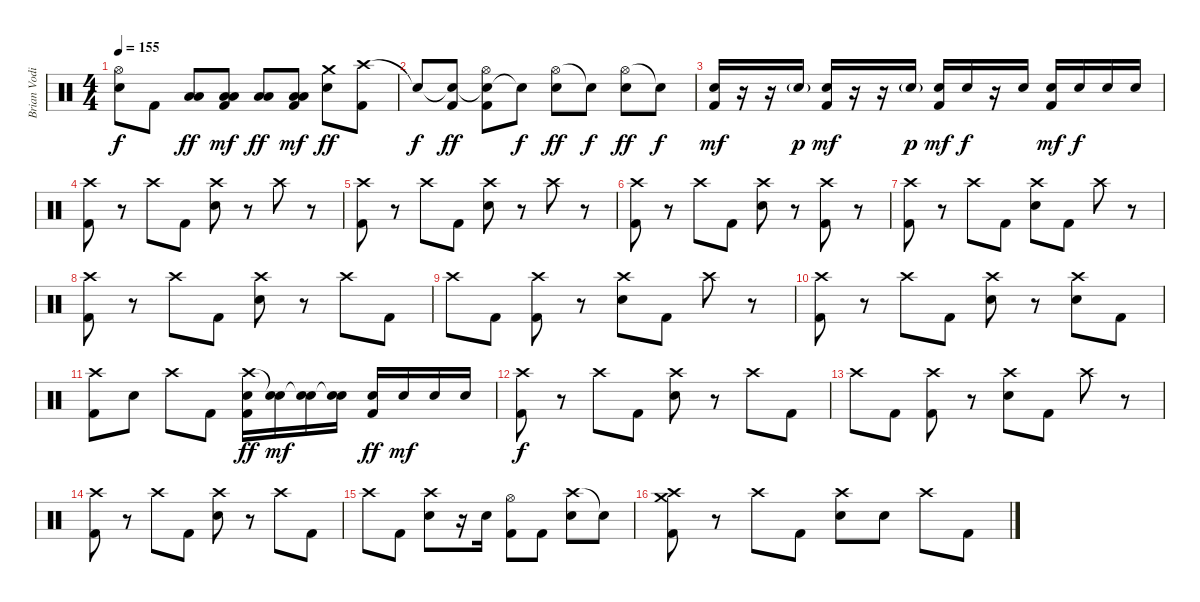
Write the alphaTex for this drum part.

\track ("Brian Vodinh" "Brian Vodi") {instrument percussion}
\staff {score}
\articulation defaults
\ts (4 4)
\tempo 155
\clef neutral
\ks c
("Hi-Hat (open)" "Electric Snare (hit)").8{dy f} "Kick (hit) 2".8 ("Low Floor Tom (hit)" "Low Floor Tom (hit)").8{dy ff} ("Low Floor Tom (hit)" "Low Floor Tom (hit)" "Kick (hit) 2").8{dy mf} ("Low Floor Tom (hit)" "Low Floor Tom (hit)").8{dy ff} ("Low Floor Tom (hit)" "Low Floor Tom (hit)" "Kick (hit) 2").8{dy mf} ("Crash medium (hit)" "Electric Snare (hit)").8{dy ff} ("Crash high (hit)" "Kick (hit) 2").8 |
"Snare (hit)"{t}.8{dy f} ("Snare (hit)"{t} "Kick (hit) 2").8{dy ff} ("Snare (hit)"{t} "Hi-Hat (open)" "Kick (hit) 2").8 "Snare (hit)"{t}.8{dy f} ("Hi-Hat (open)" "Electric Snare (hit)").8{dy ff} "Snare (hit)"{t}.8{dy f} ("Hi-Hat (open)" "Electric Snare (hit)").8{dy ff} "Snare (hit)"{t}.8{dy f} |
("Electric Snare (hit)" "Kick (hit) 2").16{dy mf} r.16 r.16 "Electric Snare (hit)"{g}.16{dy p} ("Electric Snare (hit)" "Kick (hit) 2").16{dy mf} r.16 r.16 "Electric Snare (hit)"{g}.16{dy p} ("Electric Snare (hit)" "Kick (hit) 2").16{dy mf} "Electric Snare (hit)".16{dy f} r.16 "Electric Snare (hit)".16 ("Electric Snare (hit)" "Kick (hit) 2").16{dy mf} "Electric Snare (hit)".16{dy f} "Electric Snare (hit)".16 "Electric Snare (hit)".16 |
("Crash high (hit)" "Kick (hit) 2").8 r.8 "Crash high (hit)".8 "Kick (hit) 2".8 ("Crash high (hit)" "Electric Snare (hit)").8 r.8 "Crash high (hit)".8 r.8 |
("Crash high (hit)" "Kick (hit) 2").8 r.8 "Crash high (hit)".8 "Kick (hit) 2".8 ("Crash high (hit)" "Electric Snare (hit)").8 r.8 "Crash high (hit)".8 r.8 |
("Crash high (hit)" "Kick (hit) 2").8 r.8 "Crash high (hit)".8 "Kick (hit) 2".8 ("Crash high (hit)" "Electric Snare (hit)").8 r.8 ("Crash high (hit)" "Kick (hit) 2").8 r.8 |
("Crash high (hit)" "Kick (hit) 2").8 r.8 "Crash high (hit)".8 "Kick (hit) 2".8 ("Crash high (hit)" "Electric Snare (hit)").8 "Kick (hit) 2".8 "Crash high (hit)".8 r.8 |
("Crash high (hit)" "Kick (hit) 2").8 r.8 "Crash high (hit)".8 "Kick (hit) 2".8 ("Crash high (hit)" "Electric Snare (hit)").8 r.8 "Crash high (hit)".8 "Kick (hit) 2".8 |
"Crash high (hit)".8 "Kick (hit) 2".8 ("Crash high (hit)" "Kick (hit) 2").8 r.8 ("Crash high (hit)" "Electric Snare (hit)").8 "Kick (hit) 2".8 "Crash high (hit)".8 r.8 |
("Crash high (hit)" "Kick (hit) 2").8 r.8 "Crash high (hit)".8 "Kick (hit) 2".8 ("Crash high (hit)" "Electric Snare (hit)").8 r.8 ("Crash high (hit)" "Electric Snare (hit)").8 "Kick (hit) 2".8 |
("Crash high (hit)" "Kick (hit) 2").8 "Electric Snare (hit)".8 "Crash high (hit)".8 "Kick (hit) 2".8 ("Crash high (hit)" "Electric Snare (hit)" "Kick (hit) 2").16{dy ff} ("Snare (hit)"{t} "Electric Snare (hit)").16{dy mf} ("Snare (hit)"{t} "Electric Snare (hit)").16 ("Snare (hit)"{t} "Electric Snare (hit)").16 ("Electric Snare (hit)" "Kick (hit) 2").16{dy ff} "Electric Snare (hit)".16{dy mf} "Electric Snare (hit)".16 "Electric Snare (hit)".16 |
("Crash high (hit)" "Kick (hit) 2").8{dy f} r.8 "Crash high (hit)".8 "Kick (hit) 2".8 ("Crash high (hit)" "Electric Snare (hit)").8 r.8 "Crash high (hit)".8 "Kick (hit) 2".8 |
"Crash high (hit)".8 "Kick (hit) 2".8 ("Crash high (hit)" "Kick (hit) 2").8 r.8 ("Crash high (hit)" "Electric Snare (hit)").8 "Kick (hit) 2".8 "Crash high (hit)".8 r.8 |
("Crash high (hit)" "Kick (hit) 2").8 r.8 "Crash high (hit)".8 "Kick (hit) 2".8 ("Crash high (hit)" "Electric Snare (hit)").8 r.8 "Crash high (hit)".8 "Kick (hit) 2".8 |
"Crash high (hit)".8 "Kick (hit) 2".8 ("Crash high (hit)" "Electric Snare (hit)").8 r.16 "Electric Snare (hit)".16 ("Hi-Hat (open)" "Kick (hit) 2").8 "Kick (hit) 2".8 ("Crash high (hit)" "Electric Snare (hit)").8 "Snare (hit)"{t}.8 |
("Crash high (hit)" "Crash medium (hit)" "Kick (hit) 2").8 r.8 "Crash high (hit)".8 "Kick (hit) 2".8 ("Crash high (hit)" "Electric Snare (hit)").8 "Electric Snare (hit)".8 "Crash high (hit)".8 "Kick (hit) 2".8
